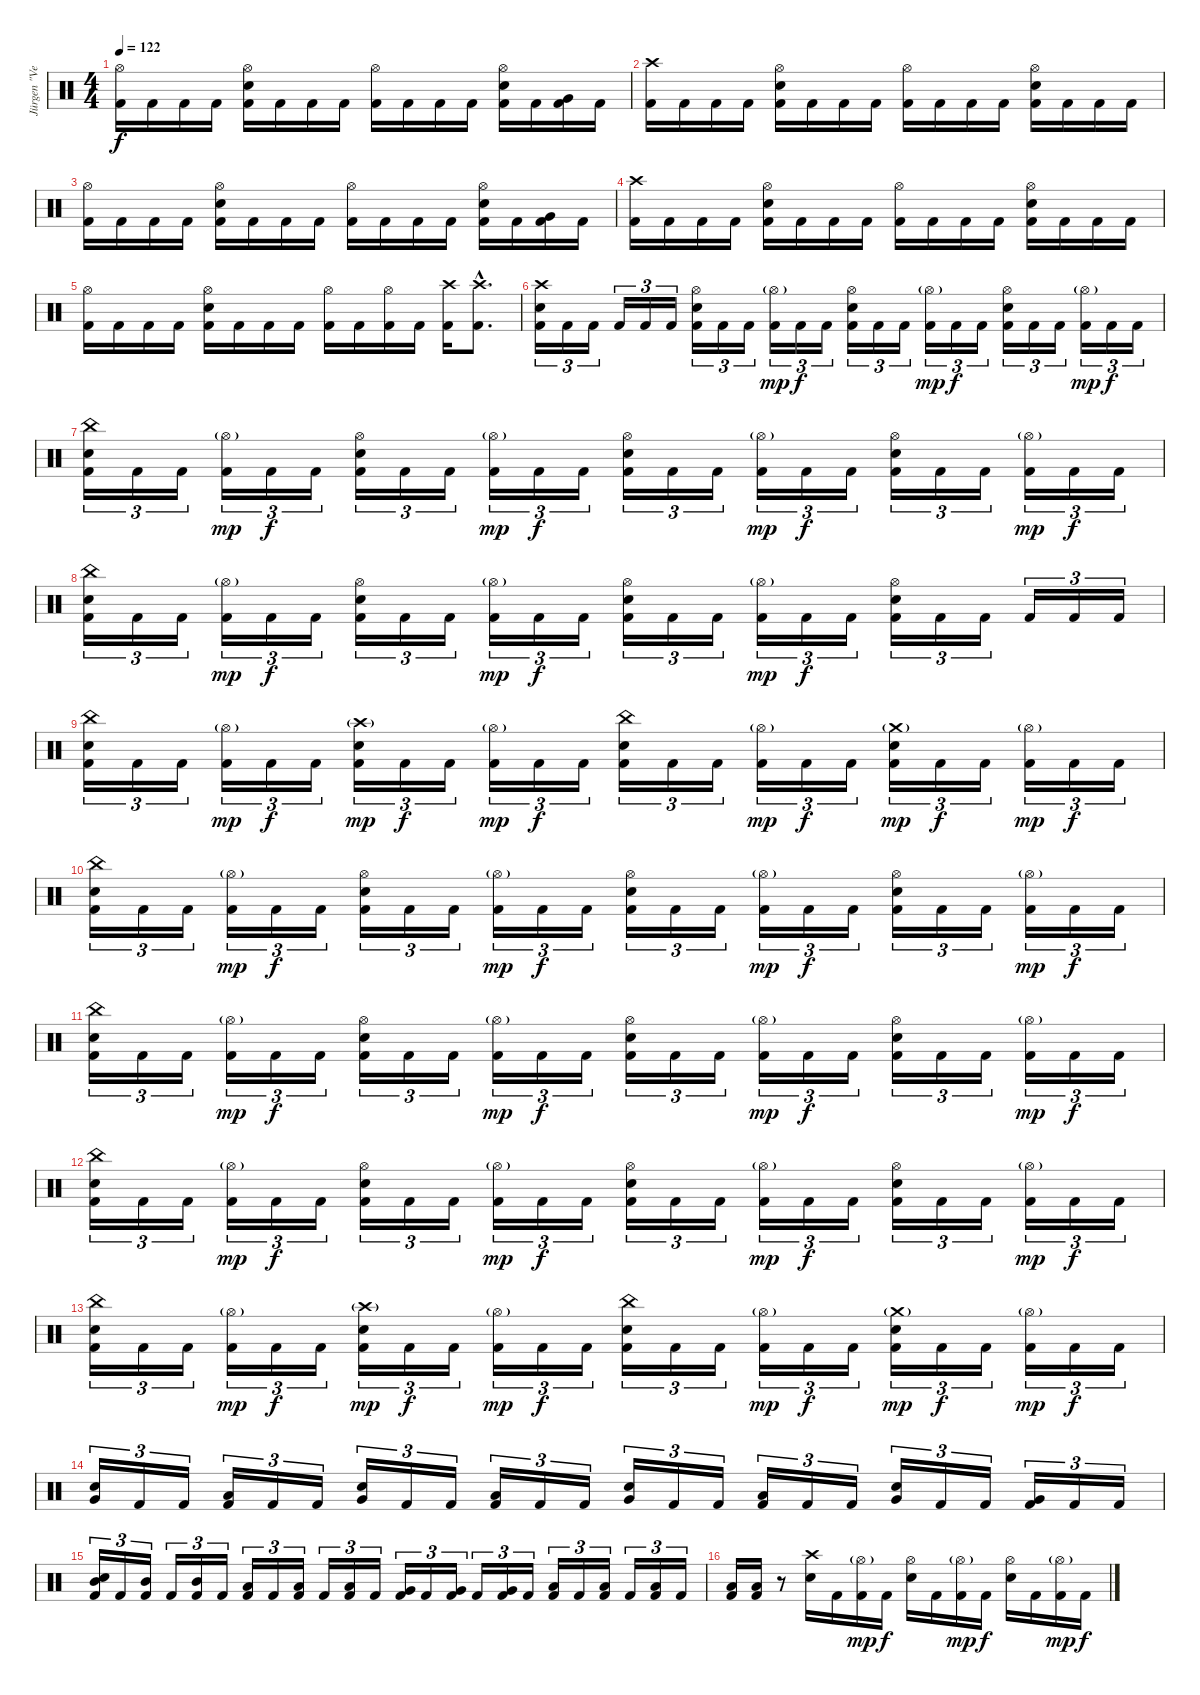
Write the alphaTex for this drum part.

\track ("Jürgen \"Ventor\" Reil Drums" "Jürgen \"Ve") {instrument percussion}
\staff {score}
\articulation defaults
\ts (4 4)
\tempo 122
\clef neutral
\ks c
("Hi-Hat (open)" "Kick (hit) 2").16{dy f} "Kick (hit) 2".16 "Kick (hit) 2".16 "Kick (hit) 2".16 ("Snare (hit) 2" "Hi-Hat (open)" "Kick (hit) 2").16 "Kick (hit) 2".16 "Kick (hit) 2".16 "Kick (hit) 2".16 ("Hi-Hat (open)" "Kick (hit) 2").16 "Kick (hit) 2".16 "Kick (hit) 2".16 "Kick (hit) 2".16 ("Hi-Hat (open)" "Snare (hit) 2" "Kick (hit) 2").16 "Kick (hit) 2".16 ("Very Low Tom (hit)" "Kick (hit) 2").16 "Kick (hit) 2".16 |
("Crash high (hit)" "Kick (hit) 2").16 "Kick (hit) 2".16 "Kick (hit) 2".16 "Kick (hit) 2".16 ("Snare (hit) 2" "Hi-Hat (open)" "Kick (hit) 2").16 "Kick (hit) 2".16 "Kick (hit) 2".16 "Kick (hit) 2".16 ("Hi-Hat (open)" "Kick (hit) 2").16 "Kick (hit) 2".16 "Kick (hit) 2".16 "Kick (hit) 2".16 ("Snare (hit) 2" "Hi-Hat (open)" "Kick (hit) 2").16 "Kick (hit) 2".16 "Kick (hit) 2".16 "Kick (hit) 2".16 |
("Hi-Hat (open)" "Kick (hit) 2").16 "Kick (hit) 2".16 "Kick (hit) 2".16 "Kick (hit) 2".16 ("Snare (hit) 2" "Hi-Hat (open)" "Kick (hit) 2").16 "Kick (hit) 2".16 "Kick (hit) 2".16 "Kick (hit) 2".16 ("Hi-Hat (open)" "Kick (hit) 2").16 "Kick (hit) 2".16 "Kick (hit) 2".16 "Kick (hit) 2".16 ("Hi-Hat (open)" "Snare (hit) 2" "Kick (hit) 2").16 "Kick (hit) 2".16 ("Very Low Tom (hit)" "Kick (hit) 2").16 "Kick (hit) 2".16 |
("Crash high (hit)" "Kick (hit) 2").16 "Kick (hit) 2".16 "Kick (hit) 2".16 "Kick (hit) 2".16 ("Snare (hit) 2" "Hi-Hat (open)" "Kick (hit) 2").16 "Kick (hit) 2".16 "Kick (hit) 2".16 "Kick (hit) 2".16 ("Hi-Hat (open)" "Kick (hit) 2").16 "Kick (hit) 2".16 "Kick (hit) 2".16 "Kick (hit) 2".16 ("Snare (hit) 2" "Hi-Hat (open)" "Kick (hit) 2").16 "Kick (hit) 2".16 "Kick (hit) 2".16 "Kick (hit) 2".16 |
("Hi-Hat (open)" "Kick (hit) 2").16 "Kick (hit) 2".16 "Kick (hit) 2".16 "Kick (hit) 2".16 ("Snare (hit) 2" "Hi-Hat (open)" "Kick (hit) 2").16 "Kick (hit) 2".16 "Kick (hit) 2".16 "Kick (hit) 2".16 ("Hi-Hat (open)" "Kick (hit) 2").16 "Kick (hit) 2".16 ("Hi-Hat (open)" "Kick (hit) 2").16 "Kick (hit) 2".16 ("Crash high (hit)" "Kick (hit) 2").16 ("Crash high (hit)"{hac} "Kick (hit) 2"{hac}).8{d} |
("Crash high (hit)" "Snare (hit) 2" "Kick (hit) 2").16{tu (3 2)} "Kick (hit) 2".16{tu (3 2)} "Kick (hit) 2".16{tu (3 2)} "Kick (hit) 2".16{tu (3 2)} "Kick (hit) 2".16{tu (3 2)} "Kick (hit) 2".16{tu (3 2)} ("Hi-Hat (open)" "Snare (hit) 2" "Kick (hit) 2").16{tu (3 2)} "Kick (hit) 2".16{tu (3 2)} "Kick (hit) 2".16{tu (3 2)} ("Hi-Hat (open)"{g} "Kick (hit) 2").16{tu (3 2) dy mp} "Kick (hit) 2".16{tu (3 2) dy f} "Kick (hit) 2".16{tu (3 2)} ("Hi-Hat (open)" "Snare (hit) 2" "Kick (hit) 2").16{tu (3 2)} "Kick (hit) 2".16{tu (3 2)} "Kick (hit) 2".16{tu (3 2)} ("Hi-Hat (open)"{g} "Kick (hit) 2").16{tu (3 2) dy mp} "Kick (hit) 2".16{tu (3 2) dy f} "Kick (hit) 2".16{tu (3 2)} ("Hi-Hat (open)" "Snare (hit) 2" "Kick (hit) 2").16{tu (3 2)} "Kick (hit) 2".16{tu (3 2)} "Kick (hit) 2".16{tu (3 2)} ("Hi-Hat (open)"{g} "Kick (hit) 2").16{tu (3 2) dy mp} "Kick (hit) 2".16{tu (3 2) dy f} "Kick (hit) 2".16{tu (3 2)} |
("China (hit)" "Snare (hit) 2" "Kick (hit) 2").16{tu (3 2)} "Kick (hit) 2".16{tu (3 2)} "Kick (hit) 2".16{tu (3 2)} ("Hi-Hat (open)"{g} "Kick (hit) 2").16{tu (3 2) dy mp} "Kick (hit) 2".16{tu (3 2) dy f} "Kick (hit) 2".16{tu (3 2)} ("Hi-Hat (open)" "Snare (hit) 2" "Kick (hit) 2").16{tu (3 2)} "Kick (hit) 2".16{tu (3 2)} "Kick (hit) 2".16{tu (3 2)} ("Hi-Hat (open)"{g} "Kick (hit) 2").16{tu (3 2) dy mp} "Kick (hit) 2".16{tu (3 2) dy f} "Kick (hit) 2".16{tu (3 2)} ("Hi-Hat (open)" "Snare (hit) 2" "Kick (hit) 2").16{tu (3 2)} "Kick (hit) 2".16{tu (3 2)} "Kick (hit) 2".16{tu (3 2)} ("Hi-Hat (open)"{g} "Kick (hit) 2").16{tu (3 2) dy mp} "Kick (hit) 2".16{tu (3 2) dy f} "Kick (hit) 2".16{tu (3 2)} ("Hi-Hat (open)" "Snare (hit) 2" "Kick (hit) 2").16{tu (3 2)} "Kick (hit) 2".16{tu (3 2)} "Kick (hit) 2".16{tu (3 2)} ("Hi-Hat (open)"{g} "Kick (hit) 2").16{tu (3 2) dy mp} "Kick (hit) 2".16{tu (3 2) dy f} "Kick (hit) 2".16{tu (3 2)} |
("China (hit)" "Snare (hit) 2" "Kick (hit) 2").16{tu (3 2)} "Kick (hit) 2".16{tu (3 2)} "Kick (hit) 2".16{tu (3 2)} ("Hi-Hat (open)"{g} "Kick (hit) 2").16{tu (3 2) dy mp} "Kick (hit) 2".16{tu (3 2) dy f} "Kick (hit) 2".16{tu (3 2)} ("Hi-Hat (open)" "Snare (hit) 2" "Kick (hit) 2").16{tu (3 2)} "Kick (hit) 2".16{tu (3 2)} "Kick (hit) 2".16{tu (3 2)} ("Hi-Hat (open)"{g} "Kick (hit) 2").16{tu (3 2) dy mp} "Kick (hit) 2".16{tu (3 2) dy f} "Kick (hit) 2".16{tu (3 2)} ("Hi-Hat (open)" "Snare (hit) 2" "Kick (hit) 2").16{tu (3 2)} "Kick (hit) 2".16{tu (3 2)} "Kick (hit) 2".16{tu (3 2)} ("Hi-Hat (open)"{g} "Kick (hit) 2").16{tu (3 2) dy mp} "Kick (hit) 2".16{tu (3 2) dy f} "Kick (hit) 2".16{tu (3 2)} ("Hi-Hat (open)" "Snare (hit) 2" "Kick (hit) 2").16{tu (3 2)} "Kick (hit) 2".16{tu (3 2)} "Kick (hit) 2".16{tu (3 2)} "Kick (hit) 2".16{tu (3 2)} "Kick (hit) 2".16{tu (3 2)} "Kick (hit) 2".16{tu (3 2)} |
("China (hit)" "Snare (hit) 2" "Kick (hit) 2").16{tu (3 2)} "Kick (hit) 2".16{tu (3 2)} "Kick (hit) 2".16{tu (3 2)} ("Hi-Hat (open)"{g} "Kick (hit) 2").16{tu (3 2) dy mp} "Kick (hit) 2".16{tu (3 2) dy f} "Kick (hit) 2".16{tu (3 2)} ("Crash high (hit)"{g} "Snare (hit) 2" "Kick (hit) 2").16{tu (3 2) dy mp} "Kick (hit) 2".16{tu (3 2) dy f} "Kick (hit) 2".16{tu (3 2)} ("Hi-Hat (open)"{g} "Kick (hit) 2").16{tu (3 2) dy mp} "Kick (hit) 2".16{tu (3 2) dy f} "Kick (hit) 2".16{tu (3 2)} ("China (hit)" "Snare (hit) 2" "Kick (hit) 2").16{tu (3 2)} "Kick (hit) 2".16{tu (3 2)} "Kick (hit) 2".16{tu (3 2)} ("Hi-Hat (open)"{g} "Kick (hit) 2").16{tu (3 2) dy mp} "Kick (hit) 2".16{tu (3 2) dy f} "Kick (hit) 2".16{tu (3 2)} ("Crash medium (hit)"{g} "Snare (hit) 2" "Kick (hit) 2").16{tu (3 2) dy mp} "Kick (hit) 2".16{tu (3 2) dy f} "Kick (hit) 2".16{tu (3 2)} ("Hi-Hat (open)"{g} "Kick (hit) 2").16{tu (3 2) dy mp} "Kick (hit) 2".16{tu (3 2) dy f} "Kick (hit) 2".16{tu (3 2)} |
("China (hit)" "Snare (hit) 2" "Kick (hit) 2").16{tu (3 2)} "Kick (hit) 2".16{tu (3 2)} "Kick (hit) 2".16{tu (3 2)} ("Hi-Hat (open)"{g} "Kick (hit) 2").16{tu (3 2) dy mp} "Kick (hit) 2".16{tu (3 2) dy f} "Kick (hit) 2".16{tu (3 2)} ("Hi-Hat (open)" "Snare (hit) 2" "Kick (hit) 2").16{tu (3 2)} "Kick (hit) 2".16{tu (3 2)} "Kick (hit) 2".16{tu (3 2)} ("Hi-Hat (open)"{g} "Kick (hit) 2").16{tu (3 2) dy mp} "Kick (hit) 2".16{tu (3 2) dy f} "Kick (hit) 2".16{tu (3 2)} ("Hi-Hat (open)" "Snare (hit) 2" "Kick (hit) 2").16{tu (3 2)} "Kick (hit) 2".16{tu (3 2)} "Kick (hit) 2".16{tu (3 2)} ("Hi-Hat (open)"{g} "Kick (hit) 2").16{tu (3 2) dy mp} "Kick (hit) 2".16{tu (3 2) dy f} "Kick (hit) 2".16{tu (3 2)} ("Hi-Hat (open)" "Snare (hit) 2" "Kick (hit) 2").16{tu (3 2)} "Kick (hit) 2".16{tu (3 2)} "Kick (hit) 2".16{tu (3 2)} ("Hi-Hat (open)"{g} "Kick (hit) 2").16{tu (3 2) dy mp} "Kick (hit) 2".16{tu (3 2) dy f} "Kick (hit) 2".16{tu (3 2)} |
("China (hit)" "Snare (hit) 2" "Kick (hit) 2").16{tu (3 2)} "Kick (hit) 2".16{tu (3 2)} "Kick (hit) 2".16{tu (3 2)} ("Hi-Hat (open)"{g} "Kick (hit) 2").16{tu (3 2) dy mp} "Kick (hit) 2".16{tu (3 2) dy f} "Kick (hit) 2".16{tu (3 2)} ("Hi-Hat (open)" "Snare (hit) 2" "Kick (hit) 2").16{tu (3 2)} "Kick (hit) 2".16{tu (3 2)} "Kick (hit) 2".16{tu (3 2)} ("Hi-Hat (open)"{g} "Kick (hit) 2").16{tu (3 2) dy mp} "Kick (hit) 2".16{tu (3 2) dy f} "Kick (hit) 2".16{tu (3 2)} ("Hi-Hat (open)" "Snare (hit) 2" "Kick (hit) 2").16{tu (3 2)} "Kick (hit) 2".16{tu (3 2)} "Kick (hit) 2".16{tu (3 2)} ("Hi-Hat (open)"{g} "Kick (hit) 2").16{tu (3 2) dy mp} "Kick (hit) 2".16{tu (3 2) dy f} "Kick (hit) 2".16{tu (3 2)} ("Hi-Hat (open)" "Snare (hit) 2" "Kick (hit) 2").16{tu (3 2)} "Kick (hit) 2".16{tu (3 2)} "Kick (hit) 2".16{tu (3 2)} ("Hi-Hat (open)"{g} "Kick (hit) 2").16{tu (3 2) dy mp} "Kick (hit) 2".16{tu (3 2) dy f} "Kick (hit) 2".16{tu (3 2)} |
("China (hit)" "Snare (hit) 2" "Kick (hit) 2").16{tu (3 2)} "Kick (hit) 2".16{tu (3 2)} "Kick (hit) 2".16{tu (3 2)} ("Hi-Hat (open)"{g} "Kick (hit) 2").16{tu (3 2) dy mp} "Kick (hit) 2".16{tu (3 2) dy f} "Kick (hit) 2".16{tu (3 2)} ("Hi-Hat (open)" "Snare (hit) 2" "Kick (hit) 2").16{tu (3 2)} "Kick (hit) 2".16{tu (3 2)} "Kick (hit) 2".16{tu (3 2)} ("Hi-Hat (open)"{g} "Kick (hit) 2").16{tu (3 2) dy mp} "Kick (hit) 2".16{tu (3 2) dy f} "Kick (hit) 2".16{tu (3 2)} ("Hi-Hat (open)" "Snare (hit) 2" "Kick (hit) 2").16{tu (3 2)} "Kick (hit) 2".16{tu (3 2)} "Kick (hit) 2".16{tu (3 2)} ("Hi-Hat (open)"{g} "Kick (hit) 2").16{tu (3 2) dy mp} "Kick (hit) 2".16{tu (3 2) dy f} "Kick (hit) 2".16{tu (3 2)} ("Hi-Hat (open)" "Snare (hit) 2" "Kick (hit) 2").16{tu (3 2)} "Kick (hit) 2".16{tu (3 2)} "Kick (hit) 2".16{tu (3 2)} ("Hi-Hat (open)"{g} "Kick (hit) 2").16{tu (3 2) dy mp} "Kick (hit) 2".16{tu (3 2) dy f} "Kick (hit) 2".16{tu (3 2)} |
("China (hit)" "Snare (hit) 2" "Kick (hit) 2").16{tu (3 2)} "Kick (hit) 2".16{tu (3 2)} "Kick (hit) 2".16{tu (3 2)} ("Hi-Hat (open)"{g} "Kick (hit) 2").16{tu (3 2) dy mp} "Kick (hit) 2".16{tu (3 2) dy f} "Kick (hit) 2".16{tu (3 2)} ("Crash high (hit)"{g} "Snare (hit) 2" "Kick (hit) 2").16{tu (3 2) dy mp} "Kick (hit) 2".16{tu (3 2) dy f} "Kick (hit) 2".16{tu (3 2)} ("Hi-Hat (open)"{g} "Kick (hit) 2").16{tu (3 2) dy mp} "Kick (hit) 2".16{tu (3 2) dy f} "Kick (hit) 2".16{tu (3 2)} ("China (hit)" "Snare (hit) 2" "Kick (hit) 2").16{tu (3 2)} "Kick (hit) 2".16{tu (3 2)} "Kick (hit) 2".16{tu (3 2)} ("Hi-Hat (open)"{g} "Kick (hit) 2").16{tu (3 2) dy mp} "Kick (hit) 2".16{tu (3 2) dy f} "Kick (hit) 2".16{tu (3 2)} ("Crash medium (hit)"{g} "Snare (hit) 2" "Kick (hit) 2").16{tu (3 2) dy mp} "Kick (hit) 2".16{tu (3 2) dy f} "Kick (hit) 2".16{tu (3 2)} ("Hi-Hat (open)"{g} "Kick (hit) 2").16{tu (3 2) dy mp} "Kick (hit) 2".16{tu (3 2) dy f} "Kick (hit) 2".16{tu (3 2)} |
("Very Low Tom (hit)" "Snare (hit) 2").16{tu (3 2)} "Kick (hit) 2".16{tu (3 2)} "Kick (hit) 2".16{tu (3 2)} ("Low Tom (hit)" "Kick (hit) 2").16{tu (3 2)} "Kick (hit) 2".16{tu (3 2)} "Kick (hit) 2".16{tu (3 2)} ("Very Low Tom (hit)" "Snare (hit) 2").16{tu (3 2)} "Kick (hit) 2".16{tu (3 2)} "Kick (hit) 2".16{tu (3 2)} ("Low Tom (hit)" "Kick (hit) 2").16{tu (3 2)} "Kick (hit) 2".16{tu (3 2)} "Kick (hit) 2".16{tu (3 2)} ("Very Low Tom (hit)" "Snare (hit) 2").16{tu (3 2)} "Kick (hit) 2".16{tu (3 2)} "Kick (hit) 2".16{tu (3 2)} ("Low Tom (hit)" "Kick (hit) 2").16{tu (3 2)} "Kick (hit) 2".16{tu (3 2)} "Kick (hit) 2".16{tu (3 2)} ("Very Low Tom (hit)" "Snare (hit) 2").16{tu (3 2)} "Kick (hit) 2".16{tu (3 2)} "Kick (hit) 2".16{tu (3 2)} ("Very Low Tom (hit)" "Kick (hit) 2").16{tu (3 2)} "Kick (hit) 2".16{tu (3 2)} "Kick (hit) 2".16{tu (3 2)} |
("Mid Tom (hit)" "Snare (hit) 2" "Kick (hit) 2").16{tu (3 2)} "Kick (hit) 2".16{tu (3 2)} ("Mid Tom (hit)" "Kick (hit) 2").16{tu (3 2)} "Kick (hit) 2".16{tu (3 2)} ("Mid Tom (hit)" "Kick (hit) 2").16{tu (3 2)} "Kick (hit) 2".16{tu (3 2)} ("Low Tom (hit)" "Kick (hit) 2").16{tu (3 2)} "Kick (hit) 2".16{tu (3 2)} ("Low Tom (hit)" "Kick (hit) 2").16{tu (3 2)} "Kick (hit) 2".16{tu (3 2)} ("Low Tom (hit)" "Kick (hit) 2").16{tu (3 2)} "Kick (hit) 2".16{tu (3 2)} ("Very Low Tom (hit)" "Kick (hit) 2").16{tu (3 2)} "Kick (hit) 2".16{tu (3 2)} ("Very Low Tom (hit)" "Kick (hit) 2").16{tu (3 2)} "Kick (hit) 2".16{tu (3 2)} ("Very Low Tom (hit)" "Kick (hit) 2").16{tu (3 2)} "Kick (hit) 2".16{tu (3 2)} ("Low Floor Tom (hit)" "Kick (hit) 2").16{tu (3 2)} "Kick (hit) 2".16{tu (3 2)} ("Low Floor Tom (hit)" "Kick (hit) 2").16{tu (3 2)} "Kick (hit) 2".16{tu (3 2)} ("Low Floor Tom (hit)" "Kick (hit) 2").16{tu (3 2)} "Kick (hit) 2".16{tu (3 2)} |
("Low Floor Tom (hit)" "Kick (hit) 2").16 ("Low Floor Tom (hit)" "Kick (hit) 2").16 r.8 ("Crash high (hit)" "Snare (hit) 2").16 "Kick (hit) 2".16 ("Hi-Hat (open)"{g} "Kick (hit) 2").16{dy mp} "Kick (hit) 2".16{dy f} ("Hi-Hat (open)" "Snare (hit) 2").16 "Kick (hit) 2".16 ("Hi-Hat (open)"{g} "Kick (hit) 2").16{dy mp} "Kick (hit) 2".16{dy f} ("Hi-Hat (open)" "Snare (hit) 2").16 "Kick (hit) 2".16 ("Hi-Hat (open)"{g} "Kick (hit) 2").16{dy mp} "Kick (hit) 2".16{dy f}
